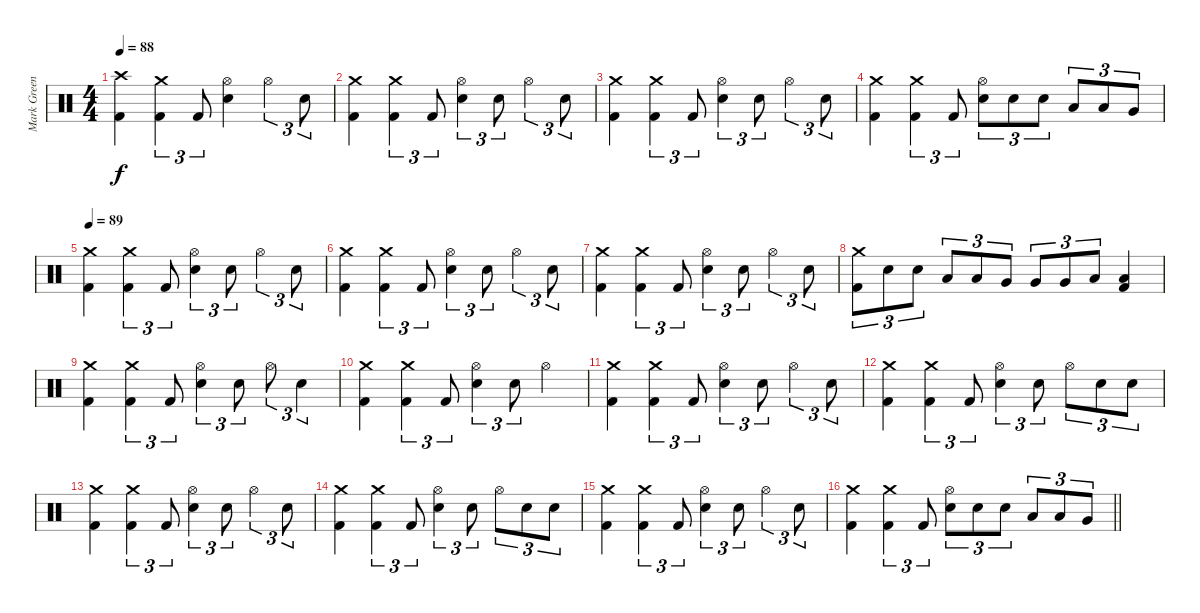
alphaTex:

\track ("Mark Greening" "Mark Green") {instrument percussion}
\staff {score}
\articulation defaults
\ts (4 4)
\section ("" "")
\tempo 88
\clef neutral
\ks c
("Crash high (hit)" "Kick (hit) 2").4{dy f} ("Crash medium (hit)" "Kick (hit) 2").4{tu (3 2)} "Kick (hit) 2".8{tu (3 2)} ("Hi-Hat (open)" "Electric Snare (hit)").4 "Hi-Hat (open)".4{tu (3 2)} "Electric Snare (hit)".8{tu (3 2)} |
("Crash medium (hit)" "Kick (hit) 2").4 ("Crash medium (hit)" "Kick (hit) 2").4{tu (3 2)} "Kick (hit) 2".8{tu (3 2)} ("Hi-Hat (open)" "Electric Snare (hit)").4{tu (3 2)} "Electric Snare (hit)".8{tu (3 2)} "Hi-Hat (open)".4{tu (3 2)} "Electric Snare (hit)".8{tu (3 2)} |
("Crash medium (hit)" "Kick (hit) 2").4 ("Crash medium (hit)" "Kick (hit) 2").4{tu (3 2)} "Kick (hit) 2".8{tu (3 2)} ("Hi-Hat (open)" "Electric Snare (hit)").4{tu (3 2)} "Electric Snare (hit)".8{tu (3 2)} "Hi-Hat (open)".4{tu (3 2)} "Electric Snare (hit)".8{tu (3 2)} |
("Crash medium (hit)" "Kick (hit) 2").4 ("Crash medium (hit)" "Kick (hit) 2").4{tu (3 2)} "Kick (hit) 2".8{tu (3 2)} ("Hi-Hat (open)" "Electric Snare (hit)").8{tu (3 2)} "Electric Snare (hit)".8{tu (3 2)} "Electric Snare (hit)".8{tu (3 2)} "Low Tom (hit)".8{tu (3 2)} "Low Tom (hit)".8{tu (3 2)} "Very Low Tom (hit)".8{tu (3 2)} |
\tempo 89
("Crash medium (hit)" "Kick (hit) 2").4 ("Crash medium (hit)" "Kick (hit) 2").4{tu (3 2)} "Kick (hit) 2".8{tu (3 2)} ("Hi-Hat (open)" "Electric Snare (hit)").4{tu (3 2)} "Electric Snare (hit)".8{tu (3 2)} "Hi-Hat (open)".4{tu (3 2)} "Electric Snare (hit)".8{tu (3 2)} |
("Crash medium (hit)" "Kick (hit) 2").4 ("Crash medium (hit)" "Kick (hit) 2").4{tu (3 2)} "Kick (hit) 2".8{tu (3 2)} ("Hi-Hat (open)" "Electric Snare (hit)").4{tu (3 2)} "Electric Snare (hit)".8{tu (3 2)} "Hi-Hat (open)".4{tu (3 2)} "Electric Snare (hit)".8{tu (3 2)} |
("Crash medium (hit)" "Kick (hit) 2").4 ("Crash medium (hit)" "Kick (hit) 2").4{tu (3 2)} "Kick (hit) 2".8{tu (3 2)} ("Hi-Hat (open)" "Electric Snare (hit)").4{tu (3 2)} "Electric Snare (hit)".8{tu (3 2)} "Hi-Hat (open)".4{tu (3 2)} "Electric Snare (hit)".8{tu (3 2)} |
("Crash medium (hit)" "Kick (hit) 2").8{tu (3 2)} "Electric Snare (hit)".8{tu (3 2)} "Electric Snare (hit)".8{tu (3 2)} "Low Tom (hit)".8{tu (3 2)} "Low Tom (hit)".8{tu (3 2)} "Very Low Tom (hit)".8{tu (3 2)} "Very Low Tom (hit)".8{tu (3 2)} "Very Low Tom (hit)".8{tu (3 2)} "Low Floor Tom (hit)".8{tu (3 2)} ("Low Floor Tom (hit)" "Kick (hit) 2").4 |
("Crash medium (hit)" "Kick (hit) 2").4 ("Crash medium (hit)" "Kick (hit) 2").4{tu (3 2)} "Kick (hit) 2".8{tu (3 2)} ("Hi-Hat (open)" "Electric Snare (hit)").4{tu (3 2)} "Electric Snare (hit)".8{tu (3 2)} "Hi-Hat (open)".8{tu (3 2)} "Electric Snare (hit)".4{tu (3 2)} |
("Crash medium (hit)" "Kick (hit) 2").4 ("Crash medium (hit)" "Kick (hit) 2").4{tu (3 2)} "Kick (hit) 2".8{tu (3 2)} ("Hi-Hat (open)" "Electric Snare (hit)").4{tu (3 2)} "Electric Snare (hit)".8{tu (3 2)} "Hi-Hat (open)".4 |
("Crash medium (hit)" "Kick (hit) 2").4 ("Crash medium (hit)" "Kick (hit) 2").4{tu (3 2)} "Kick (hit) 2".8{tu (3 2)} ("Hi-Hat (open)" "Electric Snare (hit)").4{tu (3 2)} "Electric Snare (hit)".8{tu (3 2)} "Hi-Hat (open)".4{tu (3 2)} "Electric Snare (hit)".8{tu (3 2)} |
("Crash medium (hit)" "Kick (hit) 2").4 ("Crash medium (hit)" "Kick (hit) 2").4{tu (3 2)} "Kick (hit) 2".8{tu (3 2)} ("Hi-Hat (open)" "Electric Snare (hit)").4{tu (3 2)} "Electric Snare (hit)".8{tu (3 2)} "Hi-Hat (open)".8{tu (3 2)} "Electric Snare (hit)".8{tu (3 2)} "Electric Snare (hit)".8{tu (3 2)} |
("Crash medium (hit)" "Kick (hit) 2").4 ("Crash medium (hit)" "Kick (hit) 2").4{tu (3 2)} "Kick (hit) 2".8{tu (3 2)} ("Hi-Hat (open)" "Electric Snare (hit)").4{tu (3 2)} "Electric Snare (hit)".8{tu (3 2)} "Hi-Hat (open)".4{tu (3 2)} "Electric Snare (hit)".8{tu (3 2)} |
("Crash medium (hit)" "Kick (hit) 2").4 ("Crash medium (hit)" "Kick (hit) 2").4{tu (3 2)} "Kick (hit) 2".8{tu (3 2)} ("Hi-Hat (open)" "Electric Snare (hit)").4{tu (3 2)} "Electric Snare (hit)".8{tu (3 2)} "Hi-Hat (open)".8{tu (3 2)} "Electric Snare (hit)".8{tu (3 2)} "Electric Snare (hit)".8{tu (3 2)} |
("Crash medium (hit)" "Kick (hit) 2").4 ("Crash medium (hit)" "Kick (hit) 2").4{tu (3 2)} "Kick (hit) 2".8{tu (3 2)} ("Hi-Hat (open)" "Electric Snare (hit)").4{tu (3 2)} "Electric Snare (hit)".8{tu (3 2)} "Hi-Hat (open)".4{tu (3 2)} "Electric Snare (hit)".8{tu (3 2)} |
\barLineRight lightlight
("Crash medium (hit)" "Kick (hit) 2").4 ("Crash medium (hit)" "Kick (hit) 2").4{tu (3 2)} "Kick (hit) 2".8{tu (3 2)} ("Hi-Hat (open)" "Electric Snare (hit)").8{tu (3 2)} "Electric Snare (hit)".8{tu (3 2)} "Electric Snare (hit)".8{tu (3 2)} "Low Tom (hit)".8{tu (3 2)} "Low Tom (hit)".8{tu (3 2)} "Very Low Tom (hit)".8{tu (3 2)}
